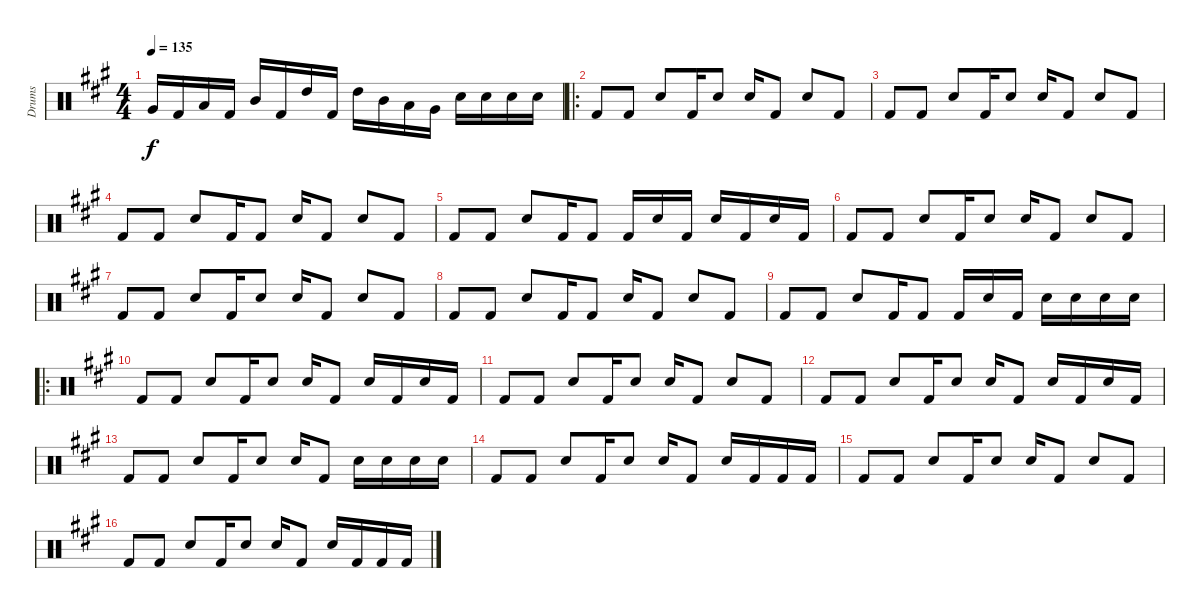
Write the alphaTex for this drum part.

\track ("Drums" "Drums") {instrument percussion}
\staff {score}
\articulation defaults
\ts (4 4)
\tempo 135
\clef neutral
\ks a "Very Low Tom (hit)".16{dy f} "Kick (hit) 2".16 "Low Tom (hit)".16 "Kick (hit) 2".16 "Mid Tom (hit)".16 "Kick (hit) 2".16 "High Tom (hit)".16 "Kick (hit) 2".16 "High Tom (hit)".16 "Mid Tom (hit)".16 "Low Tom (hit)".16 "Very Low Tom (hit)".16 "Snare (hit) 2".16 "Snare (hit) 2".16 "Snare (hit) 2".16 "Snare (hit) 2".16
|
\ro "Kick (hit) 2".8 "Kick (hit) 2".8 "Snare (hit) 2".8 "Kick (hit) 2".16 "Snare (hit) 2".8 "Snare (hit) 2".16 "Kick (hit) 2".8 "Snare (hit) 2".8 "Kick (hit) 2".8
|
"Kick (hit) 2".8 "Kick (hit) 2".8 "Snare (hit) 2".8 "Kick (hit) 2".16 "Snare (hit) 2".8 "Snare (hit) 2".16 "Kick (hit) 2".8 "Snare (hit) 2".8 "Kick (hit) 2".8 |
"Kick (hit) 2".8 "Kick (hit) 2".8 "Snare (hit) 2".8 "Kick (hit) 2".16 "Kick (hit) 2".8 "Snare (hit) 2".16 "Kick (hit) 2".8 "Snare (hit) 2".8 "Kick (hit) 2".8 |
"Kick (hit) 2".8 "Kick (hit) 2".8 "Snare (hit) 2".8 "Kick (hit) 2".16 "Kick (hit) 2".8 "Kick (hit) 2".16 "Snare (hit) 2".16 "Kick (hit) 2".16 "Snare (hit) 2".16 "Kick (hit) 2".16 "Snare (hit) 2".16 "Kick (hit) 2".16 |
"Kick (hit) 2".8 "Kick (hit) 2".8 "Snare (hit) 2".8 "Kick (hit) 2".16 "Snare (hit) 2".8 "Snare (hit) 2".16 "Kick (hit) 2".8 "Snare (hit) 2".8 "Kick (hit) 2".8 |
"Kick (hit) 2".8 "Kick (hit) 2".8 "Snare (hit) 2".8 "Kick (hit) 2".16 "Snare (hit) 2".8 "Snare (hit) 2".16 "Kick (hit) 2".8 "Snare (hit) 2".8 "Kick (hit) 2".8 |
"Kick (hit) 2".8 "Kick (hit) 2".8 "Snare (hit) 2".8 "Kick (hit) 2".16 "Kick (hit) 2".8 "Snare (hit) 2".16 "Kick (hit) 2".8 "Snare (hit) 2".8 "Kick (hit) 2".8 |
"Kick (hit) 2".8 "Kick (hit) 2".8 "Snare (hit) 2".8 "Kick (hit) 2".16 "Kick (hit) 2".8 "Kick (hit) 2".16 "Snare (hit) 2".16 "Kick (hit) 2".16 "Snare (hit) 2".16 "Snare (hit) 2".16 "Snare (hit) 2".16 "Snare (hit) 2".16 |
\ro "Kick (hit) 2".8 "Kick (hit) 2".8 "Snare (hit) 2".8 "Kick (hit) 2".16 "Snare (hit) 2".8 "Snare (hit) 2".16 "Kick (hit) 2".8 "Snare (hit) 2".16 "Kick (hit) 2".16 "Snare (hit) 2".16 "Kick (hit) 2".16
|
"Kick (hit) 2".8 "Kick (hit) 2".8 "Snare (hit) 2".8 "Kick (hit) 2".16 "Snare (hit) 2".8 "Snare (hit) 2".16 "Kick (hit) 2".8 "Snare (hit) 2".8 "Kick (hit) 2".8 |
"Kick (hit) 2".8 "Kick (hit) 2".8 "Snare (hit) 2".8 "Kick (hit) 2".16 "Snare (hit) 2".8 "Snare (hit) 2".16 "Kick (hit) 2".8 "Snare (hit) 2".16 "Kick (hit) 2".16 "Snare (hit) 2".16 "Kick (hit) 2".16 |
"Kick (hit) 2".8 "Kick (hit) 2".8 "Snare (hit) 2".8 "Kick (hit) 2".16 "Snare (hit) 2".8 "Snare (hit) 2".16 "Kick (hit) 2".8 "Snare (hit) 2".16 "Snare (hit) 2".16 "Snare (hit) 2".16 "Snare (hit) 2".16 |
"Kick (hit) 2".8 "Kick (hit) 2".8 "Snare (hit) 2".8 "Kick (hit) 2".16 "Snare (hit) 2".8 "Snare (hit) 2".16 "Kick (hit) 2".8 "Snare (hit) 2".16 "Kick (hit) 2".16 "Kick (hit) 2".16 "Kick (hit) 2".16 |
"Kick (hit) 2".8 "Kick (hit) 2".8 "Snare (hit) 2".8 "Kick (hit) 2".16 "Snare (hit) 2".8 "Snare (hit) 2".16 "Kick (hit) 2".8 "Snare (hit) 2".8 "Kick (hit) 2".8 |
"Kick (hit) 2".8 "Kick (hit) 2".8 "Snare (hit) 2".8 "Kick (hit) 2".16 "Snare (hit) 2".8 "Snare (hit) 2".16 "Kick (hit) 2".8 "Snare (hit) 2".16 "Kick (hit) 2".16 "Kick (hit) 2".16 "Kick (hit) 2".16
